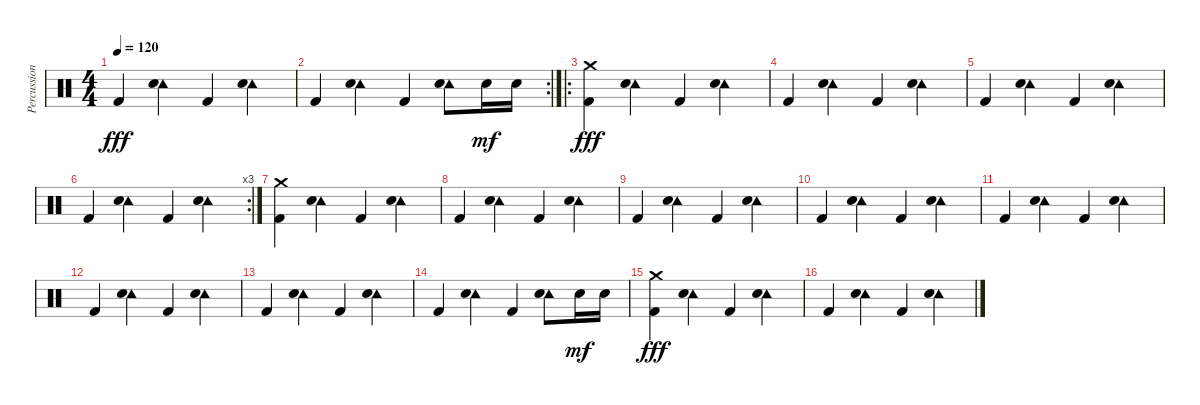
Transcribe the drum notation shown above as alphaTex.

\track ("Percussion" "Percussion") {instrument percussion}
\staff {score}
\articulation defaults
\ts (4 4)
\tempo 120
\clef neutral
\ks c "Kick (hit) 2".4{dy fff}
("Tambourine (hit)" "Electric Snare (hit)").4 "Kick (hit) 2".4 ("Tambourine (hit)" "Electric Snare (hit)").4 |
\rc 2 "Kick (hit) 2".4
("Tambourine (hit)" "Electric Snare (hit)").4 "Kick (hit) 2".4 ("Tambourine (hit)" "Electric Snare (hit)").8 "Electric Snare (hit)".16{dy mf} "Electric Snare (hit)".16 |
\ro
("Crash medium (hit)" "Kick (hit) 2").4{dy fff} ("Tambourine (hit)" "Electric Snare (hit)").4 "Kick (hit) 2".4 ("Tambourine (hit)" "Electric Snare (hit)").4 |
"Kick (hit) 2".4 ("Tambourine (hit)" "Electric Snare (hit)").4 "Kick (hit) 2".4 ("Tambourine (hit)" "Electric Snare (hit)").4 |
"Kick (hit) 2".4 ("Tambourine (hit)" "Electric Snare (hit)").4 "Kick (hit) 2".4 ("Tambourine (hit)" "Electric Snare (hit)").4 |
\rc 3 "Kick (hit) 2".4
("Tambourine (hit)" "Electric Snare (hit)").4 "Kick (hit) 2".4 ("Tambourine (hit)" "Electric Snare (hit)").4 |
("Crash medium (hit)" "Kick (hit) 2").4 ("Tambourine (hit)" "Electric Snare (hit)").4 "Kick (hit) 2".4 ("Tambourine (hit)" "Electric Snare (hit)").4 |
"Kick (hit) 2".4 ("Tambourine (hit)" "Electric Snare (hit)").4 "Kick (hit) 2".4 ("Tambourine (hit)" "Electric Snare (hit)").4 |
"Kick (hit) 2".4 ("Tambourine (hit)" "Electric Snare (hit)").4 "Kick (hit) 2".4 ("Tambourine (hit)" "Electric Snare (hit)").4 |
"Kick (hit) 2".4 ("Tambourine (hit)" "Electric Snare (hit)").4 "Kick (hit) 2".4 ("Tambourine (hit)" "Electric Snare (hit)").4 |
"Kick (hit) 2".4 ("Tambourine (hit)" "Electric Snare (hit)").4 "Kick (hit) 2".4 ("Tambourine (hit)" "Electric Snare (hit)").4 |
"Kick (hit) 2".4 ("Tambourine (hit)" "Electric Snare (hit)").4 "Kick (hit) 2".4 ("Tambourine (hit)" "Electric Snare (hit)").4 |
"Kick (hit) 2".4 ("Tambourine (hit)" "Electric Snare (hit)").4 "Kick (hit) 2".4 ("Tambourine (hit)" "Electric Snare (hit)").4 |
"Kick (hit) 2".4 ("Tambourine (hit)" "Electric Snare (hit)").4 "Kick (hit) 2".4 ("Tambourine (hit)" "Electric Snare (hit)").8 "Electric Snare (hit)".16{dy mf} "Electric Snare (hit)".16 |
("Crash medium (hit)" "Kick (hit) 2").4{dy fff} ("Tambourine (hit)" "Electric Snare (hit)").4 "Kick (hit) 2".4 ("Tambourine (hit)" "Electric Snare (hit)").4 |
"Kick (hit) 2".4 ("Tambourine (hit)" "Electric Snare (hit)").4 "Kick (hit) 2".4 ("Tambourine (hit)" "Electric Snare (hit)").4
